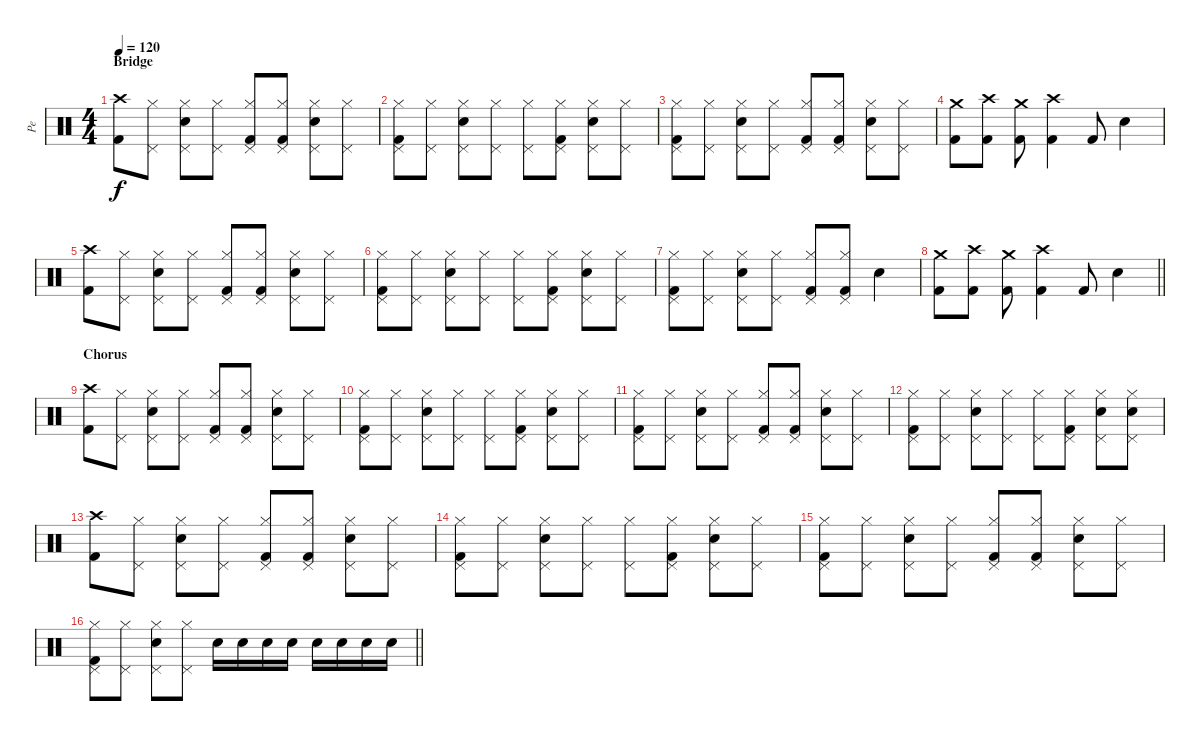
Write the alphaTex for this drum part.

\track ("Pe" "Pe") {instrument percussion}
\staff {score}
\articulation defaults
\ts (4 4)
\section ("" "Bridge")
\tempo 120
\clef neutral
\ks c
("Kick (hit) 2" "Crash high (hit)").8{dy f} ("Hi-Hat (closed)" "Pedal Hi-Hat (hit)").8 ("Snare (hit) 2" "Hi-Hat (closed)" "Pedal Hi-Hat (hit)").8 ("Hi-Hat (closed)" "Pedal Hi-Hat (hit)").8 ("Kick (hit) 2" "Hi-Hat (closed)" "Pedal Hi-Hat (hit)").8 ("Kick (hit) 2" "Hi-Hat (closed)" "Pedal Hi-Hat (hit)").8 ("Snare (hit) 2" "Hi-Hat (closed)" "Pedal Hi-Hat (hit)").8 ("Hi-Hat (closed)" "Pedal Hi-Hat (hit)").8 |
("Kick (hit) 2" "Hi-Hat (closed)" "Pedal Hi-Hat (hit)").8 ("Hi-Hat (closed)" "Pedal Hi-Hat (hit)").8 ("Snare (hit) 2" "Hi-Hat (closed)" "Pedal Hi-Hat (hit)").8 ("Hi-Hat (closed)" "Pedal Hi-Hat (hit)").8 ("Hi-Hat (closed)" "Pedal Hi-Hat (hit)").8 ("Kick (hit) 2" "Hi-Hat (closed)" "Pedal Hi-Hat (hit)").8 ("Snare (hit) 2" "Hi-Hat (closed)" "Pedal Hi-Hat (hit)").8 ("Hi-Hat (closed)" "Pedal Hi-Hat (hit)").8 |
("Kick (hit) 2" "Hi-Hat (closed)" "Pedal Hi-Hat (hit)").8 ("Hi-Hat (closed)" "Pedal Hi-Hat (hit)").8 ("Snare (hit) 2" "Hi-Hat (closed)" "Pedal Hi-Hat (hit)").8 ("Hi-Hat (closed)" "Pedal Hi-Hat (hit)").8 ("Kick (hit) 2" "Hi-Hat (closed)" "Pedal Hi-Hat (hit)").8 ("Kick (hit) 2" "Hi-Hat (closed)" "Pedal Hi-Hat (hit)").8 ("Snare (hit) 2" "Hi-Hat (closed)" "Pedal Hi-Hat (hit)").8 ("Hi-Hat (closed)" "Pedal Hi-Hat (hit)").8 |
("Kick (hit) 2" "Crash medium (hit)").8 ("Kick (hit) 2" "Crash high (hit)").8 ("Kick (hit) 2" "Crash medium (hit)").8 ("Kick (hit) 2" "Crash high (hit)").4 "Kick (hit) 2".8 "Snare (hit) 2".4 |
("Kick (hit) 2" "Crash high (hit)").8 ("Hi-Hat (closed)" "Pedal Hi-Hat (hit)").8 ("Snare (hit) 2" "Hi-Hat (closed)" "Pedal Hi-Hat (hit)").8 ("Hi-Hat (closed)" "Pedal Hi-Hat (hit)").8 ("Kick (hit) 2" "Hi-Hat (closed)" "Pedal Hi-Hat (hit)").8 ("Kick (hit) 2" "Hi-Hat (closed)" "Pedal Hi-Hat (hit)").8 ("Snare (hit) 2" "Hi-Hat (closed)" "Pedal Hi-Hat (hit)").8 ("Hi-Hat (closed)" "Pedal Hi-Hat (hit)").8 |
("Kick (hit) 2" "Hi-Hat (closed)" "Pedal Hi-Hat (hit)").8 ("Hi-Hat (closed)" "Pedal Hi-Hat (hit)").8 ("Snare (hit) 2" "Hi-Hat (closed)" "Pedal Hi-Hat (hit)").8 ("Hi-Hat (closed)" "Pedal Hi-Hat (hit)").8 ("Hi-Hat (closed)" "Pedal Hi-Hat (hit)").8 ("Kick (hit) 2" "Hi-Hat (closed)" "Pedal Hi-Hat (hit)").8 ("Snare (hit) 2" "Hi-Hat (closed)" "Pedal Hi-Hat (hit)").8 ("Hi-Hat (closed)" "Pedal Hi-Hat (hit)").8 |
("Kick (hit) 2" "Hi-Hat (closed)" "Pedal Hi-Hat (hit)").8 ("Hi-Hat (closed)" "Pedal Hi-Hat (hit)").8 ("Snare (hit) 2" "Hi-Hat (closed)" "Pedal Hi-Hat (hit)").8 ("Hi-Hat (closed)" "Pedal Hi-Hat (hit)").8 ("Kick (hit) 2" "Hi-Hat (closed)" "Pedal Hi-Hat (hit)").8 ("Kick (hit) 2" "Hi-Hat (closed)" "Pedal Hi-Hat (hit)").8 "Snare (hit) 2".4 |
\barLineRight lightlight
("Kick (hit) 2" "Crash medium (hit)").8 ("Kick (hit) 2" "Crash high (hit)").8 ("Kick (hit) 2" "Crash medium (hit)").8 ("Kick (hit) 2" "Crash high (hit)").4 "Kick (hit) 2".8 "Snare (hit) 2".4 |
\section ("" "Chorus")
("Kick (hit) 2" "Crash high (hit)").8 ("Hi-Hat (closed)" "Pedal Hi-Hat (hit)").8 ("Snare (hit) 2" "Hi-Hat (closed)" "Pedal Hi-Hat (hit)").8 ("Hi-Hat (closed)" "Pedal Hi-Hat (hit)").8 ("Kick (hit) 2" "Hi-Hat (closed)" "Pedal Hi-Hat (hit)").8 ("Kick (hit) 2" "Hi-Hat (closed)" "Pedal Hi-Hat (hit)").8 ("Snare (hit) 2" "Hi-Hat (closed)" "Pedal Hi-Hat (hit)").8 ("Hi-Hat (closed)" "Pedal Hi-Hat (hit)").8 |
("Kick (hit) 2" "Hi-Hat (closed)" "Pedal Hi-Hat (hit)").8 ("Hi-Hat (closed)" "Pedal Hi-Hat (hit)").8 ("Snare (hit) 2" "Hi-Hat (closed)" "Pedal Hi-Hat (hit)").8 ("Hi-Hat (closed)" "Pedal Hi-Hat (hit)").8 ("Hi-Hat (closed)" "Pedal Hi-Hat (hit)").8 ("Kick (hit) 2" "Hi-Hat (closed)" "Pedal Hi-Hat (hit)").8 ("Snare (hit) 2" "Hi-Hat (closed)" "Pedal Hi-Hat (hit)").8 ("Hi-Hat (closed)" "Pedal Hi-Hat (hit)").8 |
("Kick (hit) 2" "Hi-Hat (closed)" "Pedal Hi-Hat (hit)").8 ("Hi-Hat (closed)" "Pedal Hi-Hat (hit)").8 ("Snare (hit) 2" "Hi-Hat (closed)" "Pedal Hi-Hat (hit)").8 ("Hi-Hat (closed)" "Pedal Hi-Hat (hit)").8 ("Kick (hit) 2" "Hi-Hat (closed)" "Pedal Hi-Hat (hit)").8 ("Kick (hit) 2" "Hi-Hat (closed)" "Pedal Hi-Hat (hit)").8 ("Snare (hit) 2" "Hi-Hat (closed)" "Pedal Hi-Hat (hit)").8 ("Hi-Hat (closed)" "Pedal Hi-Hat (hit)").8 |
("Kick (hit) 2" "Hi-Hat (closed)" "Pedal Hi-Hat (hit)").8 ("Hi-Hat (closed)" "Pedal Hi-Hat (hit)").8 ("Snare (hit) 2" "Hi-Hat (closed)" "Pedal Hi-Hat (hit)").8 ("Hi-Hat (closed)" "Pedal Hi-Hat (hit)").8 ("Hi-Hat (closed)" "Pedal Hi-Hat (hit)").8 ("Kick (hit) 2" "Hi-Hat (closed)" "Pedal Hi-Hat (hit)").8 ("Snare (hit) 2" "Hi-Hat (closed)" "Pedal Hi-Hat (hit)").8 ("Snare (hit) 2" "Hi-Hat (closed)" "Pedal Hi-Hat (hit)").8 |
("Kick (hit) 2" "Crash high (hit)").8 ("Hi-Hat (closed)" "Pedal Hi-Hat (hit)").8 ("Snare (hit) 2" "Hi-Hat (closed)" "Pedal Hi-Hat (hit)").8 ("Hi-Hat (closed)" "Pedal Hi-Hat (hit)").8 ("Kick (hit) 2" "Hi-Hat (closed)" "Pedal Hi-Hat (hit)").8 ("Kick (hit) 2" "Hi-Hat (closed)" "Pedal Hi-Hat (hit)").8 ("Snare (hit) 2" "Hi-Hat (closed)" "Pedal Hi-Hat (hit)").8 ("Hi-Hat (closed)" "Pedal Hi-Hat (hit)").8 |
("Kick (hit) 2" "Hi-Hat (closed)" "Pedal Hi-Hat (hit)").8 ("Hi-Hat (closed)" "Pedal Hi-Hat (hit)").8 ("Snare (hit) 2" "Hi-Hat (closed)" "Pedal Hi-Hat (hit)").8 ("Hi-Hat (closed)" "Pedal Hi-Hat (hit)").8 ("Hi-Hat (closed)" "Pedal Hi-Hat (hit)").8 ("Kick (hit) 2" "Hi-Hat (closed)" "Pedal Hi-Hat (hit)").8 ("Snare (hit) 2" "Hi-Hat (closed)" "Pedal Hi-Hat (hit)").8 ("Hi-Hat (closed)" "Pedal Hi-Hat (hit)").8 |
("Kick (hit) 2" "Hi-Hat (closed)" "Pedal Hi-Hat (hit)").8 ("Hi-Hat (closed)" "Pedal Hi-Hat (hit)").8 ("Snare (hit) 2" "Hi-Hat (closed)" "Pedal Hi-Hat (hit)").8 ("Hi-Hat (closed)" "Pedal Hi-Hat (hit)").8 ("Kick (hit) 2" "Hi-Hat (closed)" "Pedal Hi-Hat (hit)").8 ("Kick (hit) 2" "Hi-Hat (closed)" "Pedal Hi-Hat (hit)").8 ("Snare (hit) 2" "Hi-Hat (closed)" "Pedal Hi-Hat (hit)").8 ("Hi-Hat (closed)" "Pedal Hi-Hat (hit)").8 |
\barLineRight lightlight
("Kick (hit) 2" "Hi-Hat (closed)" "Pedal Hi-Hat (hit)").8 ("Hi-Hat (closed)" "Pedal Hi-Hat (hit)").8 ("Snare (hit) 2" "Hi-Hat (closed)" "Pedal Hi-Hat (hit)").8 ("Hi-Hat (closed)" "Pedal Hi-Hat (hit)").8 "Snare (hit) 2".16 "Snare (hit) 2".16 "Snare (hit) 2".16 "Snare (hit) 2".16 "Snare (hit) 2".16 "Snare (hit) 2".16 "Snare (hit) 2".16 "Snare (hit) 2".16
